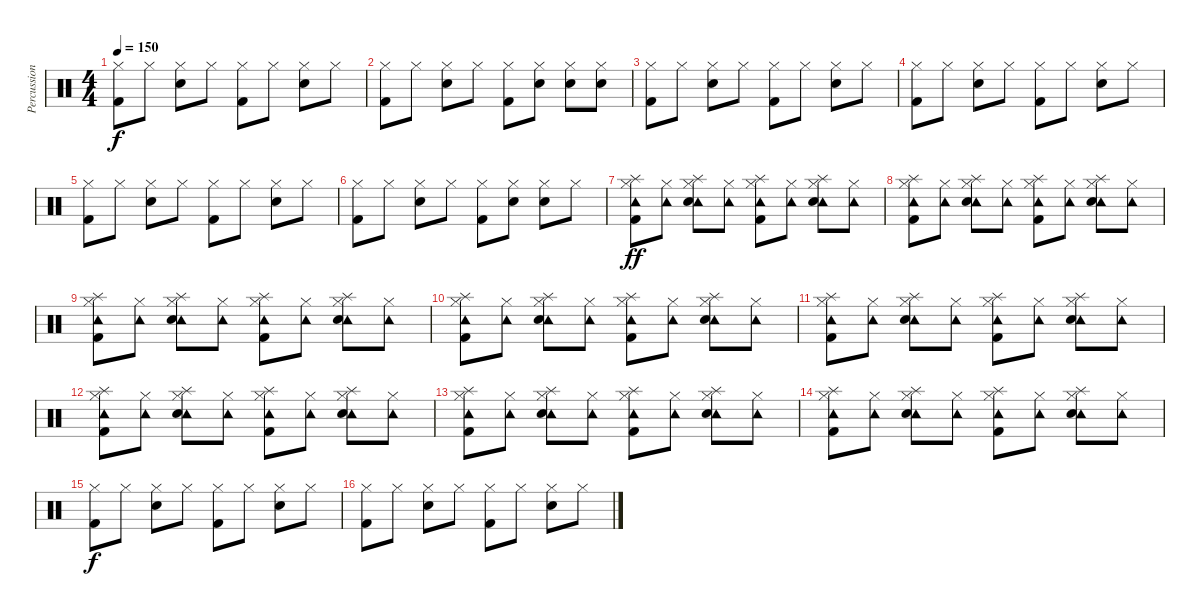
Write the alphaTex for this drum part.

\track ("Percussion" "Percussion") {instrument percussion}
\staff {score}
\articulation defaults
\ts (4 4)
\tempo 150
\clef neutral
\ks c
("Hi-Hat (closed)" "Kick (hit) 2").8{dy f} "Hi-Hat (closed)".8 ("Hi-Hat (closed)" "Electric Snare (hit)").8 "Hi-Hat (closed)".8 ("Hi-Hat (closed)" "Kick (hit) 2").8 "Hi-Hat (closed)".8 ("Hi-Hat (closed)" "Electric Snare (hit)").8 "Hi-Hat (closed)".8 |
("Hi-Hat (closed)" "Kick (hit) 2").8 "Hi-Hat (closed)".8 ("Hi-Hat (closed)" "Electric Snare (hit)").8 "Hi-Hat (closed)".8 ("Hi-Hat (closed)" "Kick (hit) 2").8 ("Hi-Hat (closed)" "Hand Clap (hit)").8 ("Hi-Hat (closed)" "Electric Snare (hit)").8 ("Hi-Hat (closed)" "Hand Clap (hit)").8 |
("Hi-Hat (closed)" "Kick (hit) 2").8 "Hi-Hat (closed)".8 ("Hi-Hat (closed)" "Electric Snare (hit)").8 "Hi-Hat (closed)".8 ("Hi-Hat (closed)" "Kick (hit) 2").8 "Hi-Hat (closed)".8 ("Hi-Hat (closed)" "Electric Snare (hit)").8 "Hi-Hat (closed)".8 |
("Hi-Hat (closed)" "Kick (hit) 2").8 "Hi-Hat (closed)".8 ("Hi-Hat (closed)" "Electric Snare (hit)").8 "Hi-Hat (closed)".8 ("Hi-Hat (closed)" "Kick (hit) 2").8 "Hi-Hat (closed)".8 ("Hi-Hat (closed)" "Electric Snare (hit)").8 "Hi-Hat (closed)".8 |
("Hi-Hat (closed)" "Kick (hit) 2").8 "Hi-Hat (closed)".8 ("Hi-Hat (closed)" "Electric Snare (hit)").8 "Hi-Hat (closed)".8 ("Hi-Hat (closed)" "Kick (hit) 2").8 "Hi-Hat (closed)".8 ("Hi-Hat (closed)" "Electric Snare (hit)").8 "Hi-Hat (closed)".8 |
("Hi-Hat (closed)" "Kick (hit) 2").8 "Hi-Hat (closed)".8 ("Hi-Hat (closed)" "Electric Snare (hit)").8 "Hi-Hat (closed)".8 ("Hi-Hat (closed)" "Kick (hit) 2").8 ("Hi-Hat (closed)" "Hand Clap (hit)").8 ("Hi-Hat (closed)" "Electric Snare (hit)").8 "Hi-Hat (closed)".8 |
("Hi-Hat (closed)" "Tambourine (hit)" "Kick (hit) 2" "Splash (hit)").8{dy ff} ("Hi-Hat (closed)" "Tambourine (hit)").8 ("Hi-Hat (closed)" "Tambourine (hit)" "Electric Snare (hit)" "Splash (hit)").8 ("Hi-Hat (closed)" "Tambourine (hit)").8 ("Hi-Hat (closed)" "Tambourine (hit)" "Kick (hit) 2" "Splash (hit)").8 ("Hi-Hat (closed)" "Tambourine (hit)").8 ("Hi-Hat (closed)" "Tambourine (hit)" "Electric Snare (hit)" "Splash (hit)").8 ("Hi-Hat (closed)" "Tambourine (hit)").8 |
("Hi-Hat (closed)" "Tambourine (hit)" "Kick (hit) 2" "Splash (hit)").8 ("Hi-Hat (closed)" "Tambourine (hit)").8 ("Hi-Hat (closed)" "Tambourine (hit)" "Electric Snare (hit)" "Splash (hit)").8 ("Hi-Hat (closed)" "Tambourine (hit)").8 ("Hi-Hat (closed)" "Tambourine (hit)" "Kick (hit) 2" "Splash (hit)").8 ("Hi-Hat (closed)" "Tambourine (hit)").8 ("Hi-Hat (closed)" "Tambourine (hit)" "Electric Snare (hit)" "Splash (hit)").8 ("Hi-Hat (closed)" "Tambourine (hit)").8 |
("Hi-Hat (closed)" "Tambourine (hit)" "Kick (hit) 2" "Splash (hit)").8 ("Hi-Hat (closed)" "Tambourine (hit)").8 ("Hi-Hat (closed)" "Tambourine (hit)" "Electric Snare (hit)" "Splash (hit)").8 ("Hi-Hat (closed)" "Tambourine (hit)").8 ("Hi-Hat (closed)" "Tambourine (hit)" "Kick (hit) 2" "Splash (hit)").8 ("Hi-Hat (closed)" "Tambourine (hit)").8 ("Hi-Hat (closed)" "Tambourine (hit)" "Electric Snare (hit)" "Splash (hit)").8 ("Hi-Hat (closed)" "Tambourine (hit)").8 |
("Hi-Hat (closed)" "Tambourine (hit)" "Kick (hit) 2" "Splash (hit)").8 ("Hi-Hat (closed)" "Tambourine (hit)").8 ("Hi-Hat (closed)" "Tambourine (hit)" "Electric Snare (hit)" "Splash (hit)").8 ("Hi-Hat (closed)" "Tambourine (hit)").8 ("Hi-Hat (closed)" "Tambourine (hit)" "Kick (hit) 2" "Splash (hit)").8 ("Hi-Hat (closed)" "Tambourine (hit)").8 ("Hi-Hat (closed)" "Tambourine (hit)" "Electric Snare (hit)" "Splash (hit)").8 ("Hi-Hat (closed)" "Tambourine (hit)").8 |
("Hi-Hat (closed)" "Tambourine (hit)" "Kick (hit) 2" "Splash (hit)").8 ("Hi-Hat (closed)" "Tambourine (hit)").8 ("Hi-Hat (closed)" "Tambourine (hit)" "Electric Snare (hit)" "Splash (hit)").8 ("Hi-Hat (closed)" "Tambourine (hit)").8 ("Hi-Hat (closed)" "Tambourine (hit)" "Kick (hit) 2" "Splash (hit)").8 ("Hi-Hat (closed)" "Tambourine (hit)").8 ("Hi-Hat (closed)" "Tambourine (hit)" "Electric Snare (hit)" "Splash (hit)").8 ("Hi-Hat (closed)" "Tambourine (hit)").8 |
("Hi-Hat (closed)" "Tambourine (hit)" "Kick (hit) 2" "Splash (hit)").8 ("Hi-Hat (closed)" "Tambourine (hit)").8 ("Hi-Hat (closed)" "Tambourine (hit)" "Electric Snare (hit)" "Splash (hit)").8 ("Hi-Hat (closed)" "Tambourine (hit)").8 ("Hi-Hat (closed)" "Tambourine (hit)" "Kick (hit) 2" "Splash (hit)").8 ("Hi-Hat (closed)" "Tambourine (hit)").8 ("Hi-Hat (closed)" "Tambourine (hit)" "Electric Snare (hit)" "Splash (hit)").8 ("Hi-Hat (closed)" "Tambourine (hit)").8 |
("Hi-Hat (closed)" "Tambourine (hit)" "Kick (hit) 2" "Splash (hit)").8 ("Hi-Hat (closed)" "Tambourine (hit)").8 ("Hi-Hat (closed)" "Tambourine (hit)" "Electric Snare (hit)" "Splash (hit)").8 ("Hi-Hat (closed)" "Tambourine (hit)").8 ("Hi-Hat (closed)" "Tambourine (hit)" "Kick (hit) 2" "Splash (hit)").8 ("Hi-Hat (closed)" "Tambourine (hit)").8 ("Hi-Hat (closed)" "Tambourine (hit)" "Electric Snare (hit)" "Splash (hit)").8 ("Hi-Hat (closed)" "Tambourine (hit)").8 |
("Hi-Hat (closed)" "Tambourine (hit)" "Kick (hit) 2" "Splash (hit)").8 ("Hi-Hat (closed)" "Tambourine (hit)").8 ("Hi-Hat (closed)" "Tambourine (hit)" "Electric Snare (hit)" "Splash (hit)").8 ("Hi-Hat (closed)" "Tambourine (hit)").8 ("Hi-Hat (closed)" "Tambourine (hit)" "Kick (hit) 2" "Splash (hit)").8 ("Hi-Hat (closed)" "Tambourine (hit)").8 ("Hi-Hat (closed)" "Tambourine (hit)" "Electric Snare (hit)" "Splash (hit)").8 ("Hi-Hat (closed)" "Tambourine (hit)").8 |
("Hi-Hat (closed)" "Kick (hit) 2").8{dy f} "Hi-Hat (closed)".8 ("Hi-Hat (closed)" "Electric Snare (hit)").8 "Hi-Hat (closed)".8 ("Hi-Hat (closed)" "Kick (hit) 2").8 "Hi-Hat (closed)".8 ("Hi-Hat (closed)" "Electric Snare (hit)").8 "Hi-Hat (closed)".8 |
("Hi-Hat (closed)" "Kick (hit) 2").8 "Hi-Hat (closed)".8 ("Hi-Hat (closed)" "Electric Snare (hit)").8 "Hi-Hat (closed)".8 ("Hi-Hat (closed)" "Kick (hit) 2").8 "Hi-Hat (closed)".8 ("Hi-Hat (closed)" "Electric Snare (hit)").8 "Hi-Hat (closed)".8
